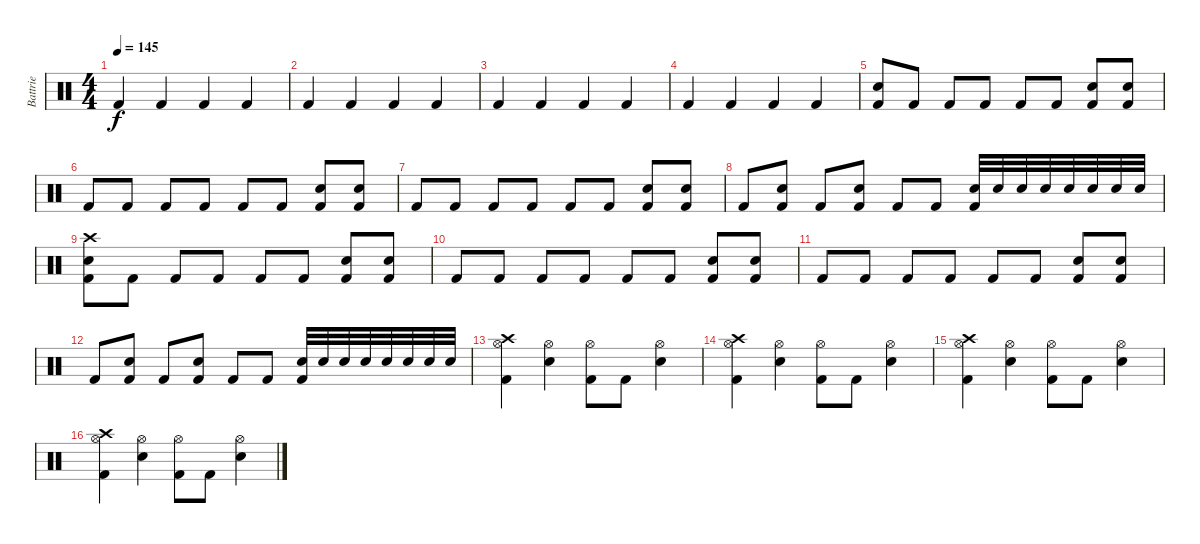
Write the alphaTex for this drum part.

\track ("Battrie" "Battrie") {instrument percussion}
\staff {score}
\articulation defaults
\ts (4 4)
\tempo 145
\clef neutral
\ks c "Kick (hit) 2".4{dy f} "Kick (hit) 2".4 "Kick (hit) 2".4 "Kick (hit) 2".4
|
"Kick (hit) 2".4 "Kick (hit) 2".4 "Kick (hit) 2".4 "Kick (hit) 2".4 |
"Kick (hit) 2".4 "Kick (hit) 2".4 "Kick (hit) 2".4 "Kick (hit) 2".4 |
"Kick (hit) 2".4 "Kick (hit) 2".4 "Kick (hit) 2".4 "Kick (hit) 2".4 |
("Snare (hit) 2" "Kick (hit) 2").8 "Kick (hit) 2".8 "Kick (hit) 2".8 "Kick (hit) 2".8 "Kick (hit) 2".8 "Kick (hit) 2".8 ("Snare (hit) 2" "Kick (hit) 2").8 ("Snare (hit) 2" "Kick (hit) 2").8 |
"Kick (hit) 2".8 "Kick (hit) 2".8 "Kick (hit) 2".8 "Kick (hit) 2".8 "Kick (hit) 2".8 "Kick (hit) 2".8 ("Snare (hit) 2" "Kick (hit) 2").8 ("Snare (hit) 2" "Kick (hit) 2").8 |
"Kick (hit) 2".8 "Kick (hit) 2".8 "Kick (hit) 2".8 "Kick (hit) 2".8 "Kick (hit) 2".8 "Kick (hit) 2".8 ("Snare (hit) 2" "Kick (hit) 2").8 ("Snare (hit) 2" "Kick (hit) 2").8 |
"Kick (hit) 2".8 ("Snare (hit) 2" "Kick (hit) 2").8 "Kick (hit) 2".8 ("Snare (hit) 2" "Kick (hit) 2").8 "Kick (hit) 2".8 "Kick (hit) 2".8 ("Snare (hit) 2" "Kick (hit) 2").32 "Snare (hit) 2".32 "Snare (hit) 2".32 "Snare (hit) 2".32 "Snare (hit) 2".32 "Snare (hit) 2".32 "Snare (hit) 2".32 "Snare (hit) 2".32 |
("Snare (hit) 2" "Kick (hit) 2" "Crash high (hit)").8 "Kick (hit) 2".8 "Kick (hit) 2".8 "Kick (hit) 2".8 "Kick (hit) 2".8 "Kick (hit) 2".8 ("Snare (hit) 2" "Kick (hit) 2").8 ("Snare (hit) 2" "Kick (hit) 2").8 |
"Kick (hit) 2".8 "Kick (hit) 2".8 "Kick (hit) 2".8 "Kick (hit) 2".8 "Kick (hit) 2".8 "Kick (hit) 2".8 ("Snare (hit) 2" "Kick (hit) 2").8 ("Snare (hit) 2" "Kick (hit) 2").8 |
"Kick (hit) 2".8 "Kick (hit) 2".8 "Kick (hit) 2".8 "Kick (hit) 2".8 "Kick (hit) 2".8 "Kick (hit) 2".8 ("Snare (hit) 2" "Kick (hit) 2").8 ("Snare (hit) 2" "Kick (hit) 2").8 |
"Kick (hit) 2".8 ("Snare (hit) 2" "Kick (hit) 2").8 "Kick (hit) 2".8 ("Snare (hit) 2" "Kick (hit) 2").8 "Kick (hit) 2".8 "Kick (hit) 2".8 ("Snare (hit) 2" "Kick (hit) 2").32 "Snare (hit) 2".32 "Snare (hit) 2".32 "Snare (hit) 2".32 "Snare (hit) 2".32 "Snare (hit) 2".32 "Snare (hit) 2".32 "Snare (hit) 2".32 |
("Hi-Hat (open)" "Kick (hit) 2" "Crash high (hit)").4 ("Hi-Hat (open)" "Snare (hit) 2").4 ("Hi-Hat (open)" "Kick (hit) 2").8 "Kick (hit) 2".8 ("Hi-Hat (open)" "Snare (hit) 2").4 |
("Hi-Hat (open)" "Kick (hit) 2" "Crash high (hit)").4 ("Hi-Hat (open)" "Snare (hit) 2").4 ("Hi-Hat (open)" "Kick (hit) 2").8 "Kick (hit) 2".8 ("Hi-Hat (open)" "Snare (hit) 2").4 |
("Hi-Hat (open)" "Kick (hit) 2" "Crash high (hit)").4 ("Hi-Hat (open)" "Snare (hit) 2").4 ("Hi-Hat (open)" "Kick (hit) 2").8 "Kick (hit) 2".8 ("Hi-Hat (open)" "Snare (hit) 2").4 |
("Hi-Hat (open)" "Kick (hit) 2" "Crash high (hit)").4 ("Hi-Hat (open)" "Snare (hit) 2").4 ("Hi-Hat (open)" "Kick (hit) 2").8 "Kick (hit) 2".8 ("Hi-Hat (open)" "Snare (hit) 2").4
